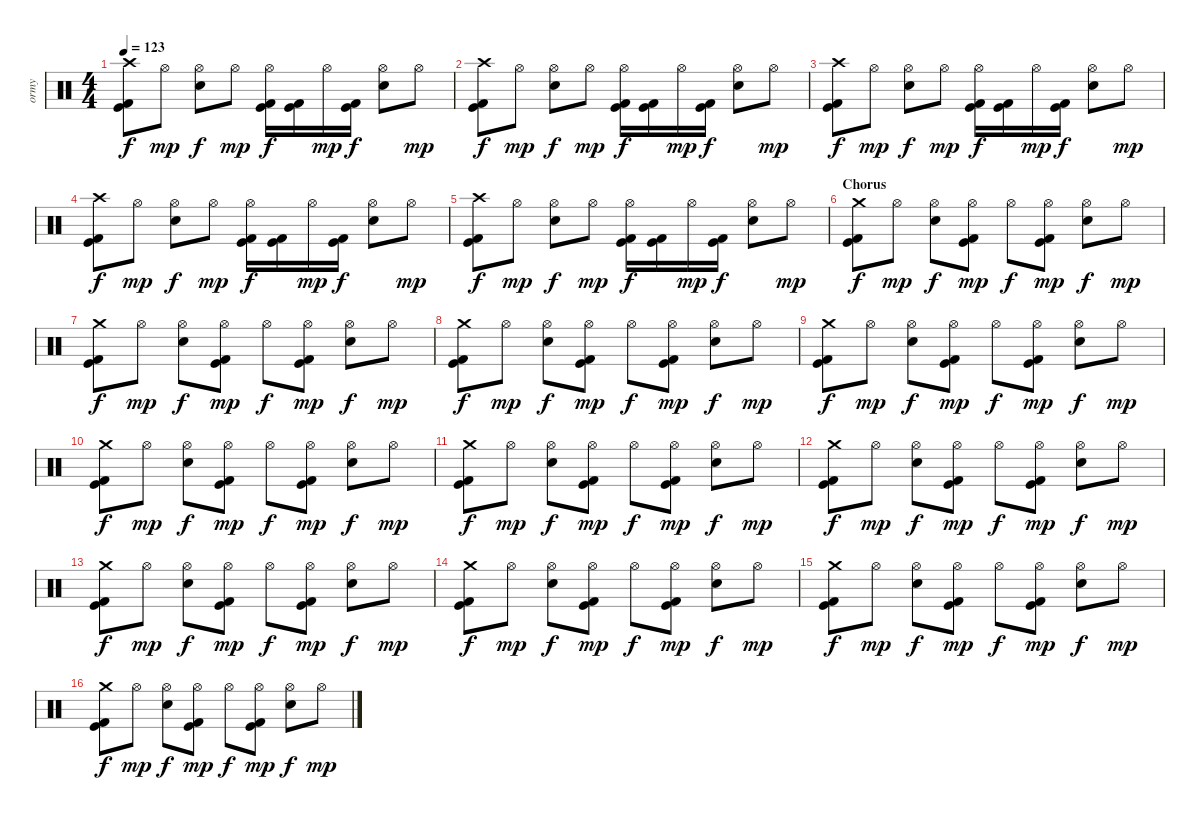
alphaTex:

\track ("ormy" "ormy") {instrument percussion}
\staff {score}
\articulation defaults
\ts (4 4)
\tempo 123
\clef neutral
\ks c
("Crash high (hit)" "Kick (hit) 2" "Kick (hit)").8{dy f} "Hi-Hat (open)".8{dy mp} ("Hi-Hat (open)" "Snare (hit) 2").8{dy f} "Hi-Hat (open)".8{dy mp} ("Hi-Hat (open)" "Kick (hit) 2" "Kick (hit)").16{dy f} ("Kick (hit) 2" "Kick (hit)").16 "Hi-Hat (open)".16{dy mp} ("Kick (hit) 2" "Kick (hit)").16{dy f} ("Hi-Hat (open)" "Snare (hit) 2").8 "Hi-Hat (open)".8{dy mp} |
("Crash high (hit)" "Kick (hit) 2" "Kick (hit)").8{dy f} "Hi-Hat (open)".8{dy mp} ("Hi-Hat (open)" "Snare (hit) 2").8{dy f} "Hi-Hat (open)".8{dy mp} ("Hi-Hat (open)" "Kick (hit) 2" "Kick (hit)").16{dy f} ("Kick (hit) 2" "Kick (hit)").16 "Hi-Hat (open)".16{dy mp} ("Kick (hit) 2" "Kick (hit)").16{dy f} ("Hi-Hat (open)" "Snare (hit) 2").8 "Hi-Hat (open)".8{dy mp} |
("Crash high (hit)" "Kick (hit) 2" "Kick (hit)").8{dy f} "Hi-Hat (open)".8{dy mp} ("Hi-Hat (open)" "Snare (hit) 2").8{dy f} "Hi-Hat (open)".8{dy mp} ("Hi-Hat (open)" "Kick (hit) 2" "Kick (hit)").16{dy f} ("Kick (hit) 2" "Kick (hit)").16 "Hi-Hat (open)".16{dy mp} ("Kick (hit) 2" "Kick (hit)").16{dy f} ("Hi-Hat (open)" "Snare (hit) 2").8 "Hi-Hat (open)".8{dy mp} |
("Crash high (hit)" "Kick (hit) 2" "Kick (hit)").8{dy f} "Hi-Hat (open)".8{dy mp} ("Hi-Hat (open)" "Snare (hit) 2").8{dy f} "Hi-Hat (open)".8{dy mp} ("Hi-Hat (open)" "Kick (hit) 2" "Kick (hit)").16{dy f} ("Kick (hit) 2" "Kick (hit)").16 "Hi-Hat (open)".16{dy mp} ("Kick (hit) 2" "Kick (hit)").16{dy f} ("Hi-Hat (open)" "Snare (hit) 2").8 "Hi-Hat (open)".8{dy mp} |
("Crash high (hit)" "Kick (hit) 2" "Kick (hit)").8{dy f} "Hi-Hat (open)".8{dy mp} ("Hi-Hat (open)" "Snare (hit) 2").8{dy f} "Hi-Hat (open)".8{dy mp} ("Hi-Hat (open)" "Kick (hit) 2" "Kick (hit)").16{dy f} ("Kick (hit) 2" "Kick (hit)").16 "Hi-Hat (open)".16{dy mp} ("Kick (hit) 2" "Kick (hit)").16{dy f} ("Hi-Hat (open)" "Snare (hit) 2").8 "Hi-Hat (open)".8{dy mp} |
\section ("" "Chorus")
("Crash medium (hit)" "Kick (hit) 2" "Kick (hit)").8{dy f} "Hi-Hat (open)".8{dy mp} ("Hi-Hat (open)" "Snare (hit) 2").8{dy f} ("Hi-Hat (open)" "Kick (hit) 2" "Kick (hit)").8{dy mp} "Hi-Hat (open)".8{dy f} ("Hi-Hat (open)" "Kick (hit) 2" "Kick (hit)").8{dy mp} ("Hi-Hat (open)" "Snare (hit) 2").8{dy f} "Hi-Hat (open)".8{dy mp} |
("Crash medium (hit)" "Kick (hit) 2" "Kick (hit)").8{dy f} "Hi-Hat (open)".8{dy mp} ("Hi-Hat (open)" "Snare (hit) 2").8{dy f} ("Hi-Hat (open)" "Kick (hit) 2" "Kick (hit)").8{dy mp} "Hi-Hat (open)".8{dy f} ("Hi-Hat (open)" "Kick (hit) 2" "Kick (hit)").8{dy mp} ("Hi-Hat (open)" "Snare (hit) 2").8{dy f} "Hi-Hat (open)".8{dy mp} |
("Crash medium (hit)" "Kick (hit) 2" "Kick (hit)").8{dy f} "Hi-Hat (open)".8{dy mp} ("Hi-Hat (open)" "Snare (hit) 2").8{dy f} ("Hi-Hat (open)" "Kick (hit) 2" "Kick (hit)").8{dy mp} "Hi-Hat (open)".8{dy f} ("Hi-Hat (open)" "Kick (hit) 2" "Kick (hit)").8{dy mp} ("Hi-Hat (open)" "Snare (hit) 2").8{dy f} "Hi-Hat (open)".8{dy mp} |
("Crash medium (hit)" "Kick (hit) 2" "Kick (hit)").8{dy f} "Hi-Hat (open)".8{dy mp} ("Hi-Hat (open)" "Snare (hit) 2").8{dy f} ("Hi-Hat (open)" "Kick (hit) 2" "Kick (hit)").8{dy mp} "Hi-Hat (open)".8{dy f} ("Hi-Hat (open)" "Kick (hit) 2" "Kick (hit)").8{dy mp} ("Hi-Hat (open)" "Snare (hit) 2").8{dy f} "Hi-Hat (open)".8{dy mp} |
("Crash medium (hit)" "Kick (hit) 2" "Kick (hit)").8{dy f} "Hi-Hat (open)".8{dy mp} ("Hi-Hat (open)" "Snare (hit) 2").8{dy f} ("Hi-Hat (open)" "Kick (hit) 2" "Kick (hit)").8{dy mp} "Hi-Hat (open)".8{dy f} ("Hi-Hat (open)" "Kick (hit) 2" "Kick (hit)").8{dy mp} ("Hi-Hat (open)" "Snare (hit) 2").8{dy f} "Hi-Hat (open)".8{dy mp} |
("Crash medium (hit)" "Kick (hit) 2" "Kick (hit)").8{dy f} "Hi-Hat (open)".8{dy mp} ("Hi-Hat (open)" "Snare (hit) 2").8{dy f} ("Hi-Hat (open)" "Kick (hit) 2" "Kick (hit)").8{dy mp} "Hi-Hat (open)".8{dy f} ("Hi-Hat (open)" "Kick (hit) 2" "Kick (hit)").8{dy mp} ("Hi-Hat (open)" "Snare (hit) 2").8{dy f} "Hi-Hat (open)".8{dy mp} |
("Crash medium (hit)" "Kick (hit) 2" "Kick (hit)").8{dy f} "Hi-Hat (open)".8{dy mp} ("Hi-Hat (open)" "Snare (hit) 2").8{dy f} ("Hi-Hat (open)" "Kick (hit) 2" "Kick (hit)").8{dy mp} "Hi-Hat (open)".8{dy f} ("Hi-Hat (open)" "Kick (hit) 2" "Kick (hit)").8{dy mp} ("Hi-Hat (open)" "Snare (hit) 2").8{dy f} "Hi-Hat (open)".8{dy mp} |
("Crash medium (hit)" "Kick (hit) 2" "Kick (hit)").8{dy f} "Hi-Hat (open)".8{dy mp} ("Hi-Hat (open)" "Snare (hit) 2").8{dy f} ("Hi-Hat (open)" "Kick (hit) 2" "Kick (hit)").8{dy mp} "Hi-Hat (open)".8{dy f} ("Hi-Hat (open)" "Kick (hit) 2" "Kick (hit)").8{dy mp} ("Hi-Hat (open)" "Snare (hit) 2").8{dy f} "Hi-Hat (open)".8{dy mp} |
("Crash medium (hit)" "Kick (hit) 2" "Kick (hit)").8{dy f} "Hi-Hat (open)".8{dy mp} ("Hi-Hat (open)" "Snare (hit) 2").8{dy f} ("Hi-Hat (open)" "Kick (hit) 2" "Kick (hit)").8{dy mp} "Hi-Hat (open)".8{dy f} ("Hi-Hat (open)" "Kick (hit) 2" "Kick (hit)").8{dy mp} ("Hi-Hat (open)" "Snare (hit) 2").8{dy f} "Hi-Hat (open)".8{dy mp} |
("Crash medium (hit)" "Kick (hit) 2" "Kick (hit)").8{dy f} "Hi-Hat (open)".8{dy mp} ("Hi-Hat (open)" "Snare (hit) 2").8{dy f} ("Hi-Hat (open)" "Kick (hit) 2" "Kick (hit)").8{dy mp} "Hi-Hat (open)".8{dy f} ("Hi-Hat (open)" "Kick (hit) 2" "Kick (hit)").8{dy mp} ("Hi-Hat (open)" "Snare (hit) 2").8{dy f} "Hi-Hat (open)".8{dy mp} |
("Crash medium (hit)" "Kick (hit) 2" "Kick (hit)").8{dy f} "Hi-Hat (open)".8{dy mp} ("Hi-Hat (open)" "Snare (hit) 2").8{dy f} ("Hi-Hat (open)" "Kick (hit) 2" "Kick (hit)").8{dy mp} "Hi-Hat (open)".8{dy f} ("Hi-Hat (open)" "Kick (hit) 2" "Kick (hit)").8{dy mp} ("Hi-Hat (open)" "Snare (hit) 2").8{dy f} "Hi-Hat (open)".8{dy mp}
